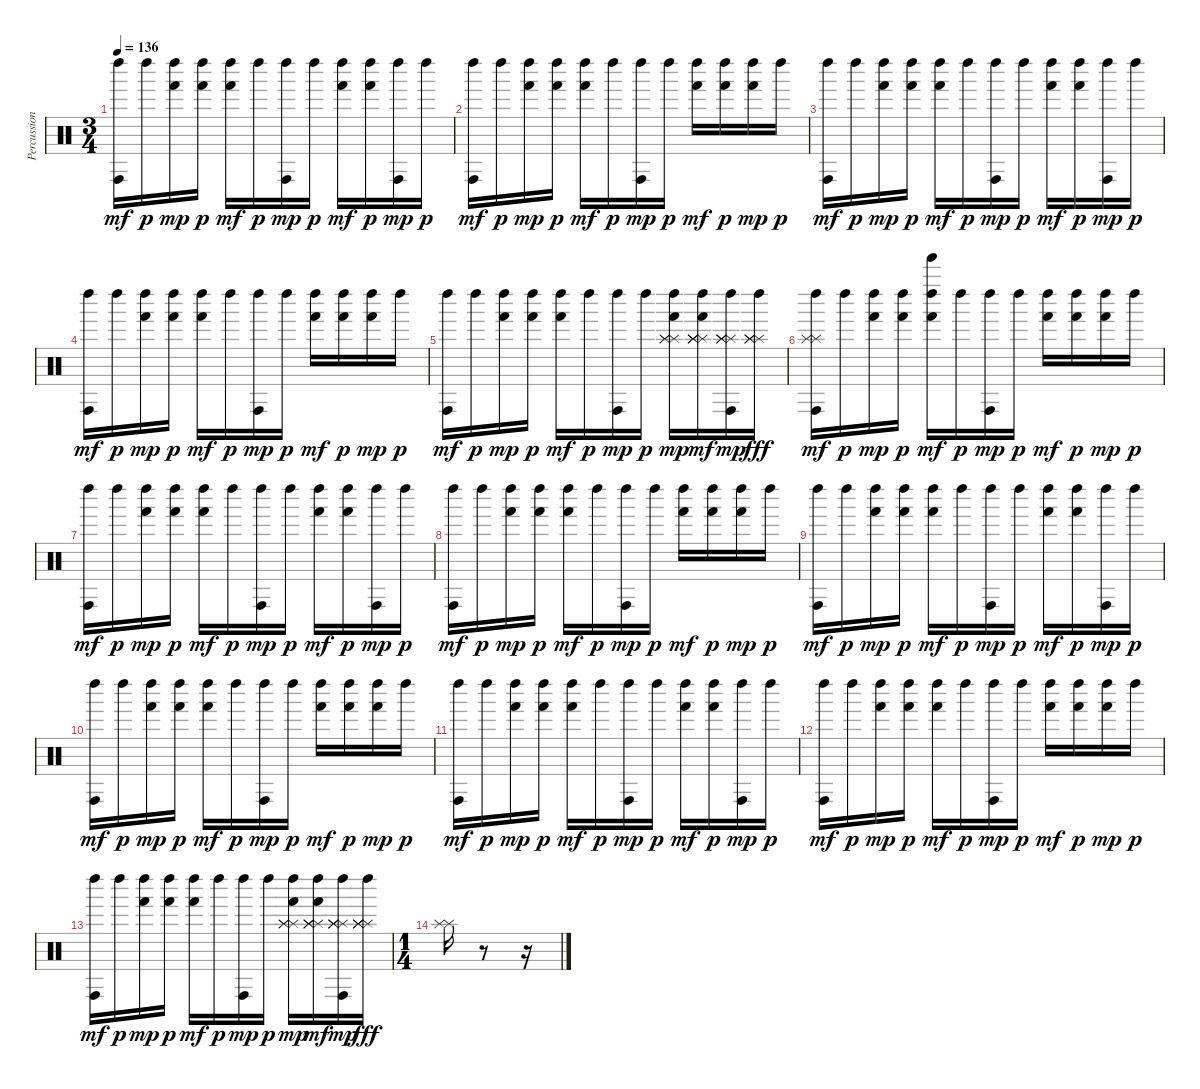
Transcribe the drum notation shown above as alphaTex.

\track ("Percussion" "Percussion") {instrument percussion}
\staff {score}
\articulation defaults
\ts (3 4)
\tempo 136
\clef neutral
\ks c
("Conga high (hit)" "Left Maraca (hit)").16{dy mf} "Left Maraca (hit)".16{dy p} ("Hand (hit)" "Left Maraca (hit)").16{dy mp} ("Hand (hit)" "Left Maraca (hit)").16{dy p} ("Hand (hit)" "Left Maraca (hit)").16{dy mf} "Left Maraca (hit)".16{dy p} ("Conga high (hit)" "Left Maraca (hit)").16{dy mp} "Left Maraca (hit)".16{dy p} ("Hand (hit)" "Left Maraca (hit)").16{dy mf} ("Hand (hit)" "Left Maraca (hit)").16{dy p} ("Conga high (hit)" "Left Maraca (hit)").16{dy mp} "Left Maraca (hit)".16{dy p} |
("Conga high (hit)" "Left Maraca (hit)").16{dy mf} "Left Maraca (hit)".16{dy p} ("Hand (hit)" "Left Maraca (hit)").16{dy mp} ("Hand (hit)" "Left Maraca (hit)").16{dy p} ("Hand (hit)" "Left Maraca (hit)").16{dy mf} "Left Maraca (hit)".16{dy p} ("Conga high (hit)" "Left Maraca (hit)").16{dy mp} "Left Maraca (hit)".16{dy p} ("Hand (hit)" "Left Maraca (hit)").16{dy mf} ("Hand (hit)" "Left Maraca (hit)").16{dy p} ("Hand (hit)" "Left Maraca (hit)").16{dy mp} "Left Maraca (hit)".16{dy p} |
("Conga high (hit)" "Left Maraca (hit)").16{dy mf} "Left Maraca (hit)".16{dy p} ("Hand (hit)" "Left Maraca (hit)").16{dy mp} ("Hand (hit)" "Left Maraca (hit)").16{dy p} ("Hand (hit)" "Left Maraca (hit)").16{dy mf} "Left Maraca (hit)".16{dy p} ("Conga high (hit)" "Left Maraca (hit)").16{dy mp} "Left Maraca (hit)".16{dy p} ("Hand (hit)" "Left Maraca (hit)").16{dy mf} ("Hand (hit)" "Left Maraca (hit)").16{dy p} ("Conga high (hit)" "Left Maraca (hit)").16{dy mp} "Left Maraca (hit)".16{dy p} |
("Conga high (hit)" "Left Maraca (hit)").16{dy mf} "Left Maraca (hit)".16{dy p} ("Hand (hit)" "Left Maraca (hit)").16{dy mp} ("Hand (hit)" "Left Maraca (hit)").16{dy p} ("Hand (hit)" "Left Maraca (hit)").16{dy mf} "Left Maraca (hit)".16{dy p} ("Conga high (hit)" "Left Maraca (hit)").16{dy mp} "Left Maraca (hit)".16{dy p} ("Hand (hit)" "Left Maraca (hit)").16{dy mf} ("Hand (hit)" "Left Maraca (hit)").16{dy p} ("Hand (hit)" "Left Maraca (hit)").16{dy mp} "Left Maraca (hit)".16{dy p} |
("Conga high (hit)" "Left Maraca (hit)").16{dy mf} "Left Maraca (hit)".16{dy p} ("Hand (hit)" "Left Maraca (hit)").16{dy mp} ("Hand (hit)" "Left Maraca (hit)").16{dy p} ("Hand (hit)" "Left Maraca (hit)").16{dy mf} "Left Maraca (hit)".16{dy p} ("Conga high (hit)" "Left Maraca (hit)").16{dy mp} "Left Maraca (hit)".16{dy p} ("Hand (hit)" "Splash (hit)" "Left Maraca (hit)" "Splash (hit)" "Splash (hit)").16{dy mp} ("Splash (hit)" "Hand (hit)" "Splash (hit)" "Left Maraca (hit)" "Splash (hit)" "Splash (hit)").16{dy mf} ("Splash (hit)" "Conga high (hit)" "Splash (hit)" "Left Maraca (hit)" "Splash (hit)" "Splash (hit)").16{dy mp} ("Splash (hit)" "Splash (hit)" "Left Maraca (hit)" "Splash (hit)" "Splash (hit)").16{dy fff} |
("Splash (hit)" "Splash (hit)" "Conga high (hit)" "Left Maraca (hit)").16{dy mf} "Left Maraca (hit)".16{dy p} ("Hand (hit)" "Left Maraca (hit)").16{dy mp} ("Hand (hit)" "Left Maraca (hit)").16{dy p} ("Hand (hit)" "Tinkle Bell (hit)" "Left Maraca (hit)").16{dy mf} "Left Maraca (hit)".16{dy p} ("Conga high (hit)" "Left Maraca (hit)").16{dy mp} "Left Maraca (hit)".16{dy p} ("Hand (hit)" "Left Maraca (hit)").16{dy mf} ("Hand (hit)" "Left Maraca (hit)").16{dy p} ("Hand (hit)" "Left Maraca (hit)").16{dy mp} "Left Maraca (hit)".16{dy p} |
("Conga high (hit)" "Left Maraca (hit)").16{dy mf} "Left Maraca (hit)".16{dy p} ("Hand (hit)" "Left Maraca (hit)").16{dy mp} ("Hand (hit)" "Left Maraca (hit)").16{dy p} ("Hand (hit)" "Left Maraca (hit)").16{dy mf} "Left Maraca (hit)".16{dy p} ("Conga high (hit)" "Left Maraca (hit)").16{dy mp} "Left Maraca (hit)".16{dy p} ("Hand (hit)" "Left Maraca (hit)").16{dy mf} ("Hand (hit)" "Left Maraca (hit)").16{dy p} ("Conga high (hit)" "Left Maraca (hit)").16{dy mp} "Left Maraca (hit)".16{dy p} |
("Conga high (hit)" "Left Maraca (hit)").16{dy mf} "Left Maraca (hit)".16{dy p} ("Hand (hit)" "Left Maraca (hit)").16{dy mp} ("Hand (hit)" "Left Maraca (hit)").16{dy p} ("Hand (hit)" "Left Maraca (hit)").16{dy mf} "Left Maraca (hit)".16{dy p} ("Conga high (hit)" "Left Maraca (hit)").16{dy mp} "Left Maraca (hit)".16{dy p} ("Hand (hit)" "Left Maraca (hit)").16{dy mf} ("Hand (hit)" "Left Maraca (hit)").16{dy p} ("Hand (hit)" "Left Maraca (hit)").16{dy mp} "Left Maraca (hit)".16{dy p} |
("Conga high (hit)" "Left Maraca (hit)").16{dy mf} "Left Maraca (hit)".16{dy p} ("Hand (hit)" "Left Maraca (hit)").16{dy mp volume 15} ("Hand (hit)" "Left Maraca (hit)").16{dy p} ("Hand (hit)" "Left Maraca (hit)").16{dy mf volume 14} "Left Maraca (hit)".16{dy p} ("Conga high (hit)" "Left Maraca (hit)").16{dy mp volume 14} "Left Maraca (hit)".16{dy p} ("Hand (hit)" "Left Maraca (hit)").16{dy mf volume 13} ("Hand (hit)" "Left Maraca (hit)").16{dy p} ("Conga high (hit)" "Left Maraca (hit)").16{dy mp volume 12} "Left Maraca (hit)".16{dy p} |
("Conga high (hit)" "Left Maraca (hit)").16{dy mf volume 12} "Left Maraca (hit)".16{dy p} ("Hand (hit)" "Left Maraca (hit)").16{dy mp volume 11} ("Hand (hit)" "Left Maraca (hit)").16{dy p} ("Hand (hit)" "Left Maraca (hit)").16{dy mf volume 11} "Left Maraca (hit)".16{dy p} ("Conga high (hit)" "Left Maraca (hit)").16{dy mp volume 10} "Left Maraca (hit)".16{dy p} ("Hand (hit)" "Left Maraca (hit)").16{dy mf volume 9} ("Hand (hit)" "Left Maraca (hit)").16{dy p} ("Hand (hit)" "Left Maraca (hit)").16{dy mp volume 9} "Left Maraca (hit)".16{dy p} |
("Conga high (hit)" "Left Maraca (hit)").16{dy mf volume 8} "Left Maraca (hit)".16{dy p} ("Hand (hit)" "Left Maraca (hit)").16{dy mp volume 8} ("Hand (hit)" "Left Maraca (hit)").16{dy p} ("Hand (hit)" "Left Maraca (hit)").16{dy mf volume 7} "Left Maraca (hit)".16{dy p} ("Conga high (hit)" "Left Maraca (hit)").16{dy mp volume 6} "Left Maraca (hit)".16{dy p} ("Hand (hit)" "Left Maraca (hit)").16{dy mf volume 6} ("Hand (hit)" "Left Maraca (hit)").16{dy p} ("Conga high (hit)" "Left Maraca (hit)").16{dy mp volume 5} "Left Maraca (hit)".16{dy p} |
("Conga high (hit)" "Left Maraca (hit)").16{dy mf volume 4} "Left Maraca (hit)".16{dy p} ("Hand (hit)" "Left Maraca (hit)").16{dy mp volume 4} ("Hand (hit)" "Left Maraca (hit)").16{dy p} ("Hand (hit)" "Left Maraca (hit)").16{dy mf volume 3} "Left Maraca (hit)".16{dy p} ("Conga high (hit)" "Left Maraca (hit)").16{dy mp volume 2} "Left Maraca (hit)".16{dy p} ("Hand (hit)" "Left Maraca (hit)").16{dy mf volume 2} ("Hand (hit)" "Left Maraca (hit)").16{dy p} ("Hand (hit)" "Left Maraca (hit)").16{dy mp volume 1} "Left Maraca (hit)".16{dy p} |
("Conga high (hit)" "Left Maraca (hit)").16{dy mf volume 1} "Left Maraca (hit)".16{dy p} ("Hand (hit)" "Left Maraca (hit)").16{dy mp volume 0} ("Hand (hit)" "Left Maraca (hit)").16{dy p} ("Hand (hit)" "Left Maraca (hit)").16{dy mf volume 0} "Left Maraca (hit)".16{dy p} ("Conga high (hit)" "Left Maraca (hit)").16{dy mp volume 0} "Left Maraca (hit)".16{dy p} ("Hand (hit)" "Splash (hit)" "Left Maraca (hit)" "Splash (hit)" "Splash (hit)").16{dy mp volume 0} ("Splash (hit)" "Hand (hit)" "Splash (hit)" "Left Maraca (hit)" "Splash (hit)" "Splash (hit)").16{dy mf} ("Splash (hit)" "Conga high (hit)" "Splash (hit)" "Left Maraca (hit)" "Splash (hit)" "Splash (hit)").16{dy mp} ("Splash (hit)" "Splash (hit)" "Left Maraca (hit)" "Splash (hit)" "Splash (hit)").16{dy fff} |
\ts (1 4)
("Splash (hit)" "Splash (hit)").16 r.8 r.16
